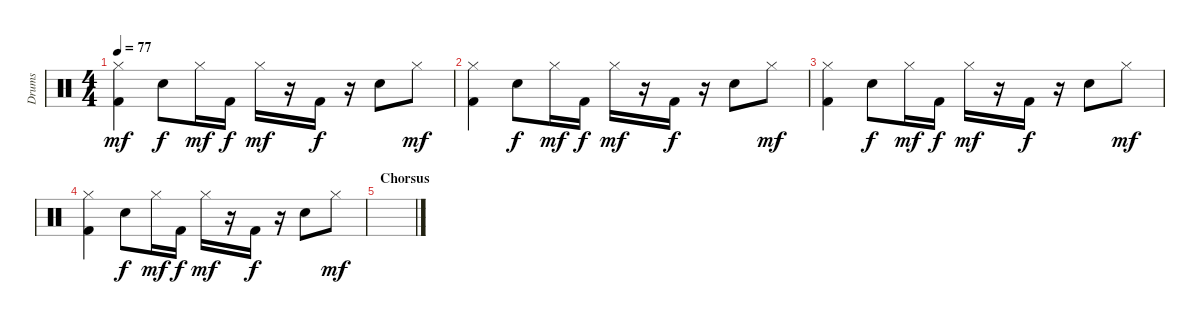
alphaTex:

\track ("Drums" "Drums") {instrument percussion}
\staff {score}
\articulation defaults
\ts (4 4)
\tempo 77
\clef neutral
\ks c
("Hi-Hat (closed)" "Kick (hit) 2").4{dy mf} "Hand Clap (hit)".8{dy f} "Hi-Hat (closed)".16{dy mf} "Kick (hit) 2".16{dy f} "Hi-Hat (closed)".16{dy mf} r.16 "Kick (hit) 2".16{dy f} r.16 "Hand Clap (hit)".8 "Hi-Hat (closed)".8{dy mf} |
("Hi-Hat (closed)" "Kick (hit) 2").4 "Hand Clap (hit)".8{dy f} "Hi-Hat (closed)".16{dy mf} "Kick (hit) 2".16{dy f} "Hi-Hat (closed)".16{dy mf} r.16 "Kick (hit) 2".16{dy f} r.16 "Hand Clap (hit)".8 "Hi-Hat (closed)".8{dy mf} |
("Hi-Hat (closed)" "Kick (hit) 2").4 "Hand Clap (hit)".8{dy f} "Hi-Hat (closed)".16{dy mf} "Kick (hit) 2".16{dy f} "Hi-Hat (closed)".16{dy mf} r.16 "Kick (hit) 2".16{dy f} r.16 "Hand Clap (hit)".8 "Hi-Hat (closed)".8{dy mf} |
("Hi-Hat (closed)" "Kick (hit) 2").4 "Hand Clap (hit)".8{dy f} "Hi-Hat (closed)".16{dy mf} "Kick (hit) 2".16{dy f} "Hi-Hat (closed)".16{dy mf} r.16 "Kick (hit) 2".16{dy f} r.16 "Hand Clap (hit)".8 "Hi-Hat (closed)".8{dy mf} |
\section ("" "Chorsus")
